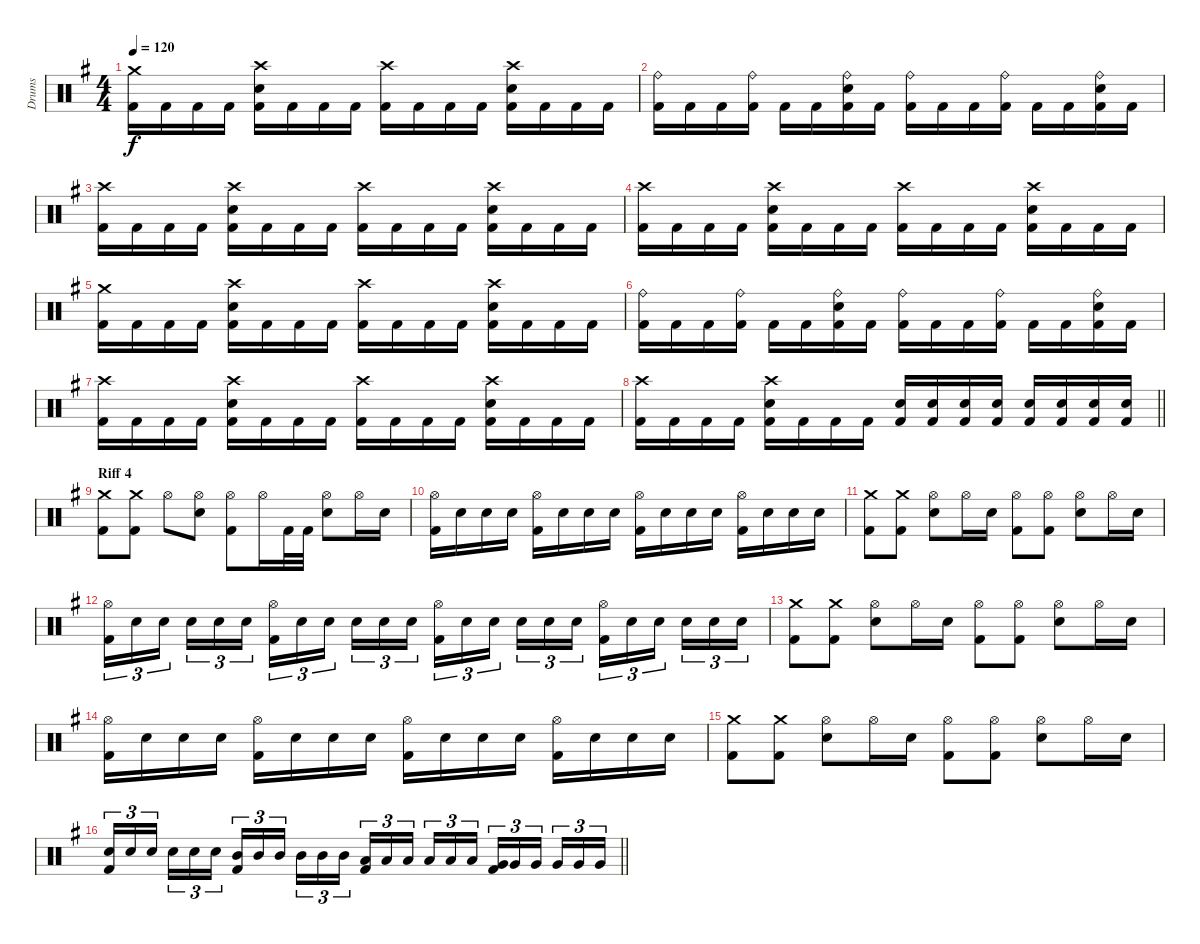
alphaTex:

\track ("Drums" "Drums") {instrument percussion}
\staff {score}
\articulation defaults
\ts (4 4)
\tempo 120
\clef neutral
\ks eminor
("Kick (hit) 2" "Crash medium (hit)").16{dy f} "Kick (hit) 2".16 "Kick (hit) 2".16 "Kick (hit) 2".16 ("Kick (hit) 2" "Electric Snare (hit)" "Crash high (hit)").16 "Kick (hit) 2".16 "Kick (hit) 2".16 "Kick (hit) 2".16 ("Kick (hit) 2" "Crash high (hit)").16 "Kick (hit) 2".16 "Kick (hit) 2".16 "Kick (hit) 2".16 ("Kick (hit) 2" "Crash high (hit)" "Electric Snare (hit)").16 "Kick (hit) 2".16 "Kick (hit) 2".16 "Kick (hit) 2".16 |
("Kick (hit) 2" "Ride (bell)").16 "Kick (hit) 2".16 "Kick (hit) 2".16 ("Kick (hit) 2" "Ride (bell)").16 "Kick (hit) 2".16 "Kick (hit) 2".16 ("Kick (hit) 2" "Electric Snare (hit)" "Ride (bell)").16 "Kick (hit) 2".16 ("Kick (hit) 2" "Ride (bell)").16 "Kick (hit) 2".16 "Kick (hit) 2".16 ("Kick (hit) 2" "Ride (bell)").16 "Kick (hit) 2".16 "Kick (hit) 2".16 ("Kick (hit) 2" "Electric Snare (hit)" "Ride (bell)").16 "Kick (hit) 2".16 |
("Kick (hit) 2" "Crash high (hit)").16 "Kick (hit) 2".16 "Kick (hit) 2".16 "Kick (hit) 2".16 ("Kick (hit) 2" "Electric Snare (hit)" "Crash high (hit)").16 "Kick (hit) 2".16 "Kick (hit) 2".16 "Kick (hit) 2".16 ("Kick (hit) 2" "Crash high (hit)").16 "Kick (hit) 2".16 "Kick (hit) 2".16 "Kick (hit) 2".16 ("Kick (hit) 2" "Crash high (hit)" "Electric Snare (hit)").16 "Kick (hit) 2".16 "Kick (hit) 2".16 "Kick (hit) 2".16 |
("Kick (hit) 2" "Crash high (hit)").16 "Kick (hit) 2".16 "Kick (hit) 2".16 "Kick (hit) 2".16 ("Kick (hit) 2" "Electric Snare (hit)" "Crash high (hit)").16 "Kick (hit) 2".16 "Kick (hit) 2".16 "Kick (hit) 2".16 ("Kick (hit) 2" "Crash high (hit)").16 "Kick (hit) 2".16 "Kick (hit) 2".16 "Kick (hit) 2".16 ("Kick (hit) 2" "Crash high (hit)" "Electric Snare (hit)").16 "Kick (hit) 2".16 "Kick (hit) 2".16 "Kick (hit) 2".16 |
("Kick (hit) 2" "Crash medium (hit)").16 "Kick (hit) 2".16 "Kick (hit) 2".16 "Kick (hit) 2".16 ("Kick (hit) 2" "Electric Snare (hit)" "Crash high (hit)").16 "Kick (hit) 2".16 "Kick (hit) 2".16 "Kick (hit) 2".16 ("Kick (hit) 2" "Crash high (hit)").16 "Kick (hit) 2".16 "Kick (hit) 2".16 "Kick (hit) 2".16 ("Kick (hit) 2" "Crash high (hit)" "Electric Snare (hit)").16 "Kick (hit) 2".16 "Kick (hit) 2".16 "Kick (hit) 2".16 |
("Kick (hit) 2" "Ride (bell)").16 "Kick (hit) 2".16 "Kick (hit) 2".16 ("Kick (hit) 2" "Ride (bell)").16 "Kick (hit) 2".16 "Kick (hit) 2".16 ("Kick (hit) 2" "Electric Snare (hit)" "Ride (bell)").16 "Kick (hit) 2".16 ("Kick (hit) 2" "Ride (bell)").16 "Kick (hit) 2".16 "Kick (hit) 2".16 ("Kick (hit) 2" "Ride (bell)").16 "Kick (hit) 2".16 "Kick (hit) 2".16 ("Kick (hit) 2" "Electric Snare (hit)" "Ride (bell)").16 "Kick (hit) 2".16 |
("Kick (hit) 2" "Crash high (hit)").16 "Kick (hit) 2".16 "Kick (hit) 2".16 "Kick (hit) 2".16 ("Kick (hit) 2" "Electric Snare (hit)" "Crash high (hit)").16 "Kick (hit) 2".16 "Kick (hit) 2".16 "Kick (hit) 2".16 ("Kick (hit) 2" "Crash high (hit)").16 "Kick (hit) 2".16 "Kick (hit) 2".16 "Kick (hit) 2".16 ("Kick (hit) 2" "Crash high (hit)" "Electric Snare (hit)").16 "Kick (hit) 2".16 "Kick (hit) 2".16 "Kick (hit) 2".16 |
\barLineRight lightlight
("Kick (hit) 2" "Crash high (hit)").16 "Kick (hit) 2".16 "Kick (hit) 2".16 "Kick (hit) 2".16 ("Kick (hit) 2" "Electric Snare (hit)" "Crash high (hit)").16 "Kick (hit) 2".16 "Kick (hit) 2".16 "Kick (hit) 2".16 ("Kick (hit) 2" "Electric Snare (hit)").16 ("Kick (hit) 2" "Electric Snare (hit)").16 ("Kick (hit) 2" "Electric Snare (hit)").16 ("Kick (hit) 2" "Electric Snare (hit)").16 ("Kick (hit) 2" "Electric Snare (hit)").16 ("Kick (hit) 2" "Electric Snare (hit)").16 ("Kick (hit) 2" "Electric Snare (hit)").16 ("Kick (hit) 2" "Electric Snare (hit)").16 |
\section ("" "Riff 4")
("Crash medium (hit)" "Kick (hit) 2").8 ("Crash medium (hit)" "Kick (hit) 2").8 "Hi-Hat (open)".8 ("Hi-Hat (open)" "Electric Snare (hit)").8 ("Hi-Hat (open)" "Kick (hit) 2").8 "Hi-Hat (open)".16 "Kick (hit) 2".32 "Kick (hit) 2".32 ("Hi-Hat (open)" "Electric Snare (hit)").8 "Hi-Hat (open)".16 "Electric Snare (hit)".16 |
("Hi-Hat (open)" "Kick (hit) 2").16 "Electric Snare (hit)".16 "Electric Snare (hit)".16 "Electric Snare (hit)".16 ("Hi-Hat (open)" "Kick (hit) 2").16 "Electric Snare (hit)".16 "Electric Snare (hit)".16 "Electric Snare (hit)".16 ("Hi-Hat (open)" "Kick (hit) 2").16 "Electric Snare (hit)".16 "Electric Snare (hit)".16 "Electric Snare (hit)".16 ("Hi-Hat (open)" "Kick (hit) 2").16 "Electric Snare (hit)".16 "Electric Snare (hit)".16 "Electric Snare (hit)".16 |
("Crash medium (hit)" "Kick (hit) 2").8 ("Crash medium (hit)" "Kick (hit) 2").8 ("Electric Snare (hit)" "Hi-Hat (open)").8 "Hi-Hat (open)".16 "Electric Snare (hit)".16 ("Hi-Hat (open)" "Kick (hit) 2").8 ("Hi-Hat (open)" "Kick (hit) 2").8 ("Electric Snare (hit)" "Hi-Hat (open)").8 "Hi-Hat (open)".16 "Electric Snare (hit)".16 |
("Kick (hit) 2" "Hi-Hat (open)").16{tu (3 2)} "Electric Snare (hit)".16{tu (3 2)} "Electric Snare (hit)".16{tu (3 2) beam splitsecondary} "Electric Snare (hit)".16{tu (3 2)} "Electric Snare (hit)".16{tu (3 2)} "Electric Snare (hit)".16{tu (3 2)} ("Kick (hit) 2" "Hi-Hat (open)").16{tu (3 2)} "Electric Snare (hit)".16{tu (3 2)} "Electric Snare (hit)".16{tu (3 2) beam splitsecondary} "Electric Snare (hit)".16{tu (3 2)} "Electric Snare (hit)".16{tu (3 2)} "Electric Snare (hit)".16{tu (3 2)} ("Kick (hit) 2" "Hi-Hat (open)").16{tu (3 2)} "Electric Snare (hit)".16{tu (3 2)} "Electric Snare (hit)".16{tu (3 2) beam splitsecondary} "Electric Snare (hit)".16{tu (3 2)} "Electric Snare (hit)".16{tu (3 2)} "Electric Snare (hit)".16{tu (3 2)} ("Kick (hit) 2" "Hi-Hat (open)").16{tu (3 2)} "Electric Snare (hit)".16{tu (3 2)} "Electric Snare (hit)".16{tu (3 2) beam splitsecondary} "Electric Snare (hit)".16{tu (3 2)} "Electric Snare (hit)".16{tu (3 2)} "Electric Snare (hit)".16{tu (3 2)} |
("Crash medium (hit)" "Kick (hit) 2").8 ("Crash medium (hit)" "Kick (hit) 2").8 ("Electric Snare (hit)" "Hi-Hat (open)").8 "Hi-Hat (open)".16 "Electric Snare (hit)".16 ("Hi-Hat (open)" "Kick (hit) 2").8 ("Hi-Hat (open)" "Kick (hit) 2").8 ("Electric Snare (hit)" "Hi-Hat (open)").8 "Hi-Hat (open)".16 "Electric Snare (hit)".16 |
("Hi-Hat (open)" "Kick (hit) 2").16 "Electric Snare (hit)".16 "Electric Snare (hit)".16 "Electric Snare (hit)".16 ("Hi-Hat (open)" "Kick (hit) 2").16 "Electric Snare (hit)".16 "Electric Snare (hit)".16 "Electric Snare (hit)".16 ("Hi-Hat (open)" "Kick (hit) 2").16 "Electric Snare (hit)".16 "Electric Snare (hit)".16 "Electric Snare (hit)".16 ("Hi-Hat (open)" "Kick (hit) 2").16 "Electric Snare (hit)".16 "Electric Snare (hit)".16 "Electric Snare (hit)".16 |
("Crash medium (hit)" "Kick (hit) 2").8 ("Crash medium (hit)" "Kick (hit) 2").8 ("Electric Snare (hit)" "Hi-Hat (open)").8 "Hi-Hat (open)".16 "Electric Snare (hit)".16 ("Hi-Hat (open)" "Kick (hit) 2").8 ("Hi-Hat (open)" "Kick (hit) 2").8 ("Electric Snare (hit)" "Hi-Hat (open)").8 "Hi-Hat (open)".16 "Electric Snare (hit)".16 |
\barLineRight lightlight
("Electric Snare (hit)" "Kick (hit) 2").16{tu (3 2)} "Electric Snare (hit)".16{tu (3 2)} "Electric Snare (hit)".16{tu (3 2) beam splitsecondary} "Electric Snare (hit)".16{tu (3 2)} "Electric Snare (hit)".16{tu (3 2)} "Electric Snare (hit)".16{tu (3 2)} ("Mid Tom (hit)" "Kick (hit) 2").16{tu (3 2)} "Mid Tom (hit)".16{tu (3 2)} "Mid Tom (hit)".16{tu (3 2) beam splitsecondary} "Mid Tom (hit)".16{tu (3 2)} "Mid Tom (hit)".16{tu (3 2)} "Mid Tom (hit)".16{tu (3 2)} ("Low Tom (hit)" "Kick (hit) 2").16{tu (3 2)} "Low Tom (hit)".16{tu (3 2)} "Low Tom (hit)".16{tu (3 2) beam splitsecondary} "Low Tom (hit)".16{tu (3 2)} "Low Tom (hit)".16{tu (3 2)} "Low Tom (hit)".16{tu (3 2)} ("Very Low Tom (hit)" "Kick (hit) 2").16{tu (3 2)} "Very Low Tom (hit)".16{tu (3 2)} "Very Low Tom (hit)".16{tu (3 2) beam splitsecondary} "Very Low Tom (hit)".16{tu (3 2)} "Very Low Tom (hit)".16{tu (3 2)} "Very Low Tom (hit)".16{tu (3 2)}
